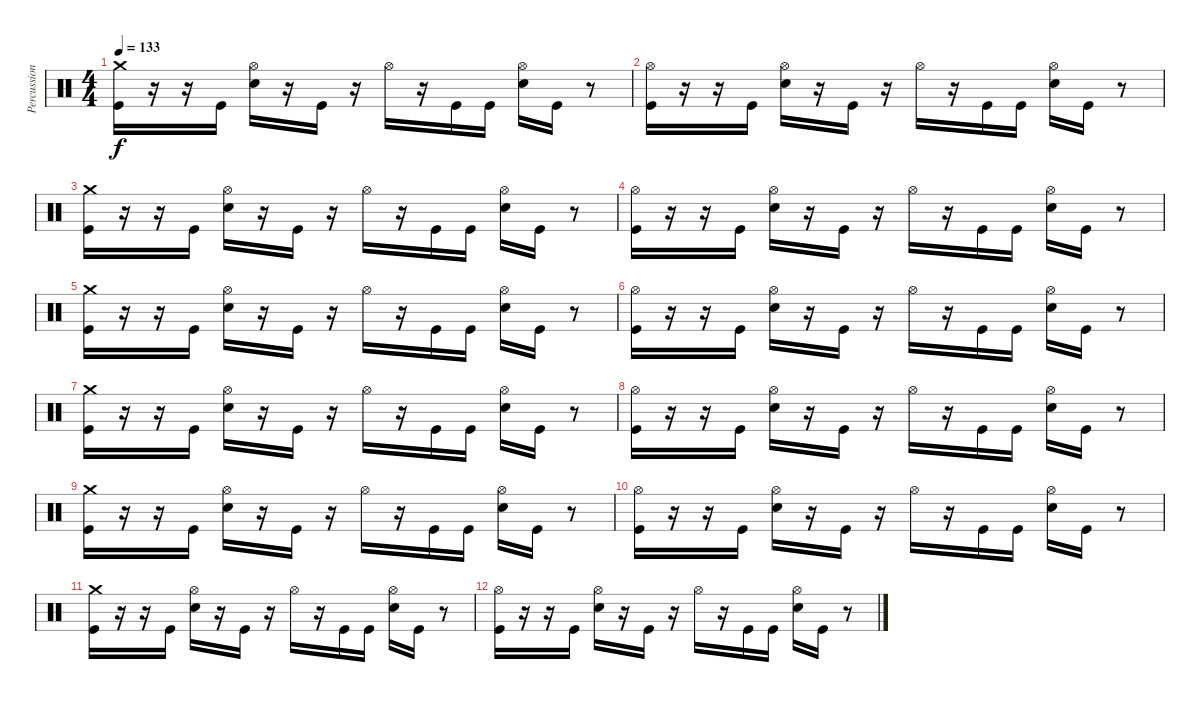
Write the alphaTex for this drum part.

\track ("Percussioni" "Percussion") {instrument percussion}
\staff {score}
\articulation defaults
\ts (4 4)
\tempo 133
\clef neutral
\ks c
("Crash medium (hit)" "Kick (hit)").16{dy f} r.16 r.16 "Kick (hit)".16 ("Hi-Hat (open)" "Electric Snare (hit)").16 r.16 "Kick (hit)".16 r.16 "Hi-Hat (open)".16 r.16 "Kick (hit)".16 "Kick (hit)".16 ("Hi-Hat (open)" "Electric Snare (hit)").16 "Kick (hit)".16 r.8 |
("Hi-Hat (open)" "Kick (hit)").16 r.16 r.16 "Kick (hit)".16 ("Hi-Hat (open)" "Electric Snare (hit)").16 r.16 "Kick (hit)".16 r.16 "Hi-Hat (open)".16 r.16 "Kick (hit)".16 "Kick (hit)".16 ("Hi-Hat (open)" "Electric Snare (hit)").16 "Kick (hit)".16 r.8 |
("Crash medium (hit)" "Kick (hit)").16 r.16 r.16 "Kick (hit)".16 ("Hi-Hat (open)" "Electric Snare (hit)").16 r.16 "Kick (hit)".16 r.16 "Hi-Hat (open)".16 r.16 "Kick (hit)".16 "Kick (hit)".16 ("Hi-Hat (open)" "Electric Snare (hit)").16 "Kick (hit)".16 r.8 |
("Hi-Hat (open)" "Kick (hit)").16 r.16 r.16 "Kick (hit)".16 ("Hi-Hat (open)" "Electric Snare (hit)").16 r.16 "Kick (hit)".16 r.16 "Hi-Hat (open)".16 r.16 "Kick (hit)".16 "Kick (hit)".16 ("Hi-Hat (open)" "Electric Snare (hit)").16 "Kick (hit)".16 r.8 |
("Crash medium (hit)" "Kick (hit)").16 r.16 r.16 "Kick (hit)".16 ("Hi-Hat (open)" "Electric Snare (hit)").16 r.16 "Kick (hit)".16 r.16 "Hi-Hat (open)".16 r.16 "Kick (hit)".16 "Kick (hit)".16 ("Hi-Hat (open)" "Electric Snare (hit)").16 "Kick (hit)".16 r.8 |
("Hi-Hat (open)" "Kick (hit)").16 r.16 r.16 "Kick (hit)".16 ("Hi-Hat (open)" "Electric Snare (hit)").16 r.16 "Kick (hit)".16 r.16 "Hi-Hat (open)".16 r.16 "Kick (hit)".16 "Kick (hit)".16 ("Hi-Hat (open)" "Electric Snare (hit)").16 "Kick (hit)".16 r.8 |
("Crash medium (hit)" "Kick (hit)").16 r.16 r.16 "Kick (hit)".16 ("Hi-Hat (open)" "Electric Snare (hit)").16 r.16 "Kick (hit)".16 r.16 "Hi-Hat (open)".16 r.16 "Kick (hit)".16 "Kick (hit)".16 ("Hi-Hat (open)" "Electric Snare (hit)").16 "Kick (hit)".16 r.8 |
("Hi-Hat (open)" "Kick (hit)").16 r.16 r.16 "Kick (hit)".16 ("Hi-Hat (open)" "Electric Snare (hit)").16 r.16 "Kick (hit)".16 r.16 "Hi-Hat (open)".16 r.16 "Kick (hit)".16 "Kick (hit)".16 ("Hi-Hat (open)" "Electric Snare (hit)").16 "Kick (hit)".16 r.8 |
("Crash medium (hit)" "Kick (hit)").16 r.16 r.16 "Kick (hit)".16 ("Hi-Hat (open)" "Electric Snare (hit)").16 r.16 "Kick (hit)".16 r.16 "Hi-Hat (open)".16 r.16 "Kick (hit)".16 "Kick (hit)".16 ("Hi-Hat (open)" "Electric Snare (hit)").16 "Kick (hit)".16 r.8 |
("Hi-Hat (open)" "Kick (hit)").16 r.16 r.16 "Kick (hit)".16 ("Hi-Hat (open)" "Electric Snare (hit)").16 r.16 "Kick (hit)".16 r.16 "Hi-Hat (open)".16 r.16 "Kick (hit)".16 "Kick (hit)".16 ("Hi-Hat (open)" "Electric Snare (hit)").16 "Kick (hit)".16 r.8 |
("Crash medium (hit)" "Kick (hit)").16 r.16 r.16 "Kick (hit)".16 ("Hi-Hat (open)" "Electric Snare (hit)").16 r.16 "Kick (hit)".16 r.16 "Hi-Hat (open)".16 r.16 "Kick (hit)".16 "Kick (hit)".16 ("Hi-Hat (open)" "Electric Snare (hit)").16 "Kick (hit)".16 r.8 |
("Hi-Hat (open)" "Kick (hit)").16 r.16 r.16 "Kick (hit)".16 ("Hi-Hat (open)" "Electric Snare (hit)").16 r.16 "Kick (hit)".16 r.16 "Hi-Hat (open)".16 r.16 "Kick (hit)".16 "Kick (hit)".16 ("Hi-Hat (open)" "Electric Snare (hit)").16 "Kick (hit)".16 r.8
